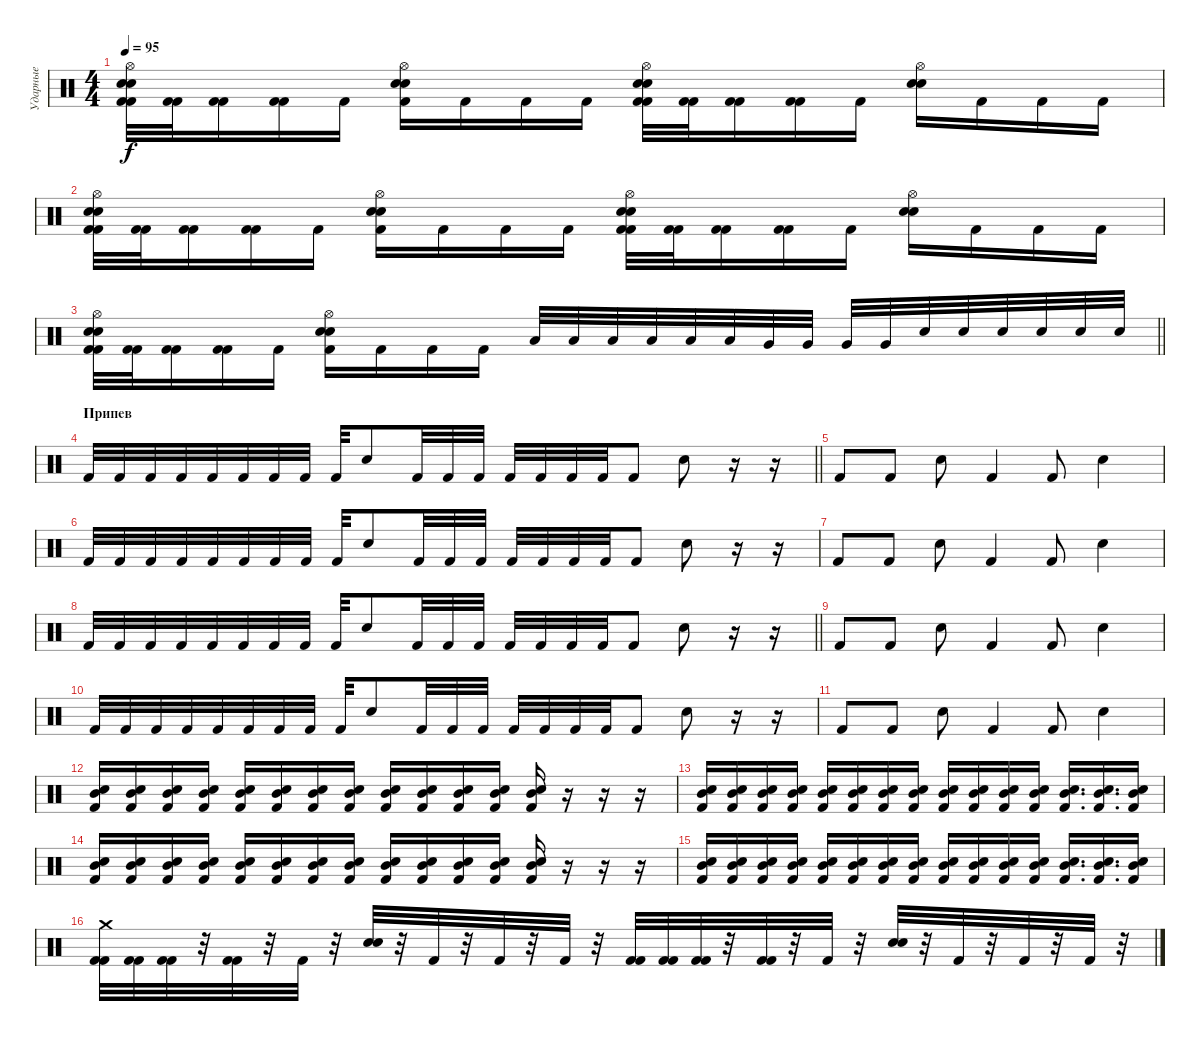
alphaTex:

\track ("Ударные" "Ударные") {instrument percussion}
\staff {score}
\articulation defaults
\ts (4 4)
\tempo 95
\clef neutral
\ks c
("Hi-Hat (open)" "Electric Snare (hit)" "Electric Snare (hit)" "Kick (hit) 2" "Kick (hit) 2").32{dy f} ("Kick (hit) 2" "Kick (hit) 2").32 ("Kick (hit) 2" "Kick (hit) 2").16 ("Kick (hit) 2" "Kick (hit) 2").16 "Kick (hit) 2".16 ("Hi-Hat (open)" "Electric Snare (hit)" "Electric Snare (hit)" "Kick (hit) 2").16 "Kick (hit) 2".16 "Kick (hit) 2".16 "Kick (hit) 2".16 ("Hi-Hat (open)" "Electric Snare (hit)" "Electric Snare (hit)" "Kick (hit) 2" "Kick (hit) 2").32 ("Kick (hit) 2" "Kick (hit) 2").32 ("Kick (hit) 2" "Kick (hit) 2").16 ("Kick (hit) 2" "Kick (hit) 2").16 "Kick (hit) 2".16 ("Hi-Hat (open)" "Electric Snare (hit)" "Electric Snare (hit)").16 "Kick (hit) 2".16 "Kick (hit) 2".16 "Kick (hit) 2".16 |
("Hi-Hat (open)" "Electric Snare (hit)" "Electric Snare (hit)" "Kick (hit) 2" "Kick (hit) 2").32 ("Kick (hit) 2" "Kick (hit) 2").32 ("Kick (hit) 2" "Kick (hit) 2").16 ("Kick (hit) 2" "Kick (hit) 2").16 "Kick (hit) 2".16 ("Hi-Hat (open)" "Electric Snare (hit)" "Electric Snare (hit)" "Kick (hit) 2").16 "Kick (hit) 2".16 "Kick (hit) 2".16 "Kick (hit) 2".16 ("Hi-Hat (open)" "Electric Snare (hit)" "Electric Snare (hit)" "Kick (hit) 2" "Kick (hit) 2").32 ("Kick (hit) 2" "Kick (hit) 2").32 ("Kick (hit) 2" "Kick (hit) 2").16 ("Kick (hit) 2" "Kick (hit) 2").16 "Kick (hit) 2".16 ("Hi-Hat (open)" "Electric Snare (hit)" "Electric Snare (hit)").16 "Kick (hit) 2".16 "Kick (hit) 2".16 "Kick (hit) 2".16 |
\barLineRight lightlight
("Hi-Hat (open)" "Electric Snare (hit)" "Electric Snare (hit)" "Kick (hit) 2" "Kick (hit) 2").32 ("Kick (hit) 2" "Kick (hit) 2").32 ("Kick (hit) 2" "Kick (hit) 2").16 ("Kick (hit) 2" "Kick (hit) 2").16 "Kick (hit) 2".16 ("Hi-Hat (open)" "Electric Snare (hit)" "Electric Snare (hit)" "Kick (hit) 2").16 "Kick (hit) 2".16 "Kick (hit) 2".16 "Kick (hit) 2".16 "Low Tom (hit)".32 "Low Tom (hit)".32 "Low Tom (hit)".32 "Low Tom (hit)".32 "Low Tom (hit)".32 "Low Tom (hit)".32 "Very Low Tom (hit)".32 "Very Low Tom (hit)".32 "Very Low Tom (hit)".32 "Very Low Tom (hit)".32 "Electric Snare (hit)".32 "Electric Snare (hit)".32 "Electric Snare (hit)".32 "Electric Snare (hit)".32 "Electric Snare (hit)".32 "Electric Snare (hit)".32 |
\section ("" "Припев")
\barLineRight lightlight "Kick (hit) 2".32 "Kick (hit) 2".32 "Kick (hit) 2".32 "Kick (hit) 2".32 "Kick (hit) 2".32 "Kick (hit) 2".32 "Kick (hit) 2".32 "Kick (hit) 2".32 "Kick (hit) 2".32 "Electric Snare (hit)".8 "Kick (hit) 2".32 "Kick (hit) 2".32 "Kick (hit) 2".32 "Kick (hit) 2".32 "Kick (hit) 2".32 "Kick (hit) 2".32 "Kick (hit) 2".32 "Kick (hit) 2".8 "Electric Snare (hit)".8
r.16 r.16 |
\section ("" "")
"Kick (hit) 2".8 "Kick (hit) 2".8 "Electric Snare (hit)".8 "Kick (hit) 2".4 "Kick (hit) 2".8 "Electric Snare (hit)".4 |
"Kick (hit) 2".32 "Kick (hit) 2".32 "Kick (hit) 2".32 "Kick (hit) 2".32 "Kick (hit) 2".32 "Kick (hit) 2".32 "Kick (hit) 2".32 "Kick (hit) 2".32 "Kick (hit) 2".32 "Electric Snare (hit)".8 "Kick (hit) 2".32 "Kick (hit) 2".32 "Kick (hit) 2".32 "Kick (hit) 2".32 "Kick (hit) 2".32 "Kick (hit) 2".32 "Kick (hit) 2".32 "Kick (hit) 2".8 "Electric Snare (hit)".8 r.16 r.16 |
"Kick (hit) 2".8 "Kick (hit) 2".8 "Electric Snare (hit)".8 "Kick (hit) 2".4 "Kick (hit) 2".8 "Electric Snare (hit)".4 |
\barLineRight lightlight "Kick (hit) 2".32 "Kick (hit) 2".32 "Kick (hit) 2".32 "Kick (hit) 2".32 "Kick (hit) 2".32 "Kick (hit) 2".32 "Kick (hit) 2".32 "Kick (hit) 2".32 "Kick (hit) 2".32 "Electric Snare (hit)".8 "Kick (hit) 2".32 "Kick (hit) 2".32 "Kick (hit) 2".32 "Kick (hit) 2".32 "Kick (hit) 2".32 "Kick (hit) 2".32 "Kick (hit) 2".32 "Kick (hit) 2".8 "Electric Snare (hit)".8
r.16 r.16 |
"Kick (hit) 2".8 "Kick (hit) 2".8 "Electric Snare (hit)".8 "Kick (hit) 2".4 "Kick (hit) 2".8 "Electric Snare (hit)".4 |
"Kick (hit) 2".32 "Kick (hit) 2".32 "Kick (hit) 2".32 "Kick (hit) 2".32 "Kick (hit) 2".32 "Kick (hit) 2".32 "Kick (hit) 2".32 "Kick (hit) 2".32 "Kick (hit) 2".32 "Electric Snare (hit)".8 "Kick (hit) 2".32 "Kick (hit) 2".32 "Kick (hit) 2".32 "Kick (hit) 2".32 "Kick (hit) 2".32 "Kick (hit) 2".32 "Kick (hit) 2".32 "Kick (hit) 2".8 "Electric Snare (hit)".8 r.16 r.16 |
"Kick (hit) 2".8 "Kick (hit) 2".8 "Electric Snare (hit)".8 "Kick (hit) 2".4 "Kick (hit) 2".8 "Electric Snare (hit)".4 |
("Mid Tom (hit)" "Snare (hit) 2" "Kick (hit) 2").16 ("Mid Tom (hit)" "Snare (hit) 2" "Kick (hit) 2").16 ("Mid Tom (hit)" "Snare (hit) 2" "Kick (hit) 2").16 ("Mid Tom (hit)" "Snare (hit) 2" "Kick (hit) 2").16 ("Mid Tom (hit)" "Snare (hit) 2" "Kick (hit) 2").16 ("Mid Tom (hit)" "Snare (hit) 2" "Kick (hit) 2").16 ("Mid Tom (hit)" "Snare (hit) 2" "Kick (hit) 2").16 ("Mid Tom (hit)" "Snare (hit) 2" "Kick (hit) 2").16 ("Mid Tom (hit)" "Snare (hit) 2" "Kick (hit) 2").16 ("Mid Tom (hit)" "Snare (hit) 2" "Kick (hit) 2").16 ("Mid Tom (hit)" "Snare (hit) 2" "Kick (hit) 2").16 ("Mid Tom (hit)" "Snare (hit) 2" "Kick (hit) 2").16 ("Mid Tom (hit)" "Snare (hit) 2" "Kick (hit) 2").16 r.16 r.16 r.16 |
("Mid Tom (hit)" "Snare (hit) 2" "Kick (hit) 2").16 ("Mid Tom (hit)" "Snare (hit) 2" "Kick (hit) 2").16 ("Mid Tom (hit)" "Snare (hit) 2" "Kick (hit) 2").16 ("Mid Tom (hit)" "Snare (hit) 2" "Kick (hit) 2").16 ("Mid Tom (hit)" "Snare (hit) 2" "Kick (hit) 2").16 ("Mid Tom (hit)" "Snare (hit) 2" "Kick (hit) 2").16 ("Mid Tom (hit)" "Snare (hit) 2" "Kick (hit) 2").16 ("Mid Tom (hit)" "Snare (hit) 2" "Kick (hit) 2").16 ("Mid Tom (hit)" "Snare (hit) 2" "Kick (hit) 2").16 ("Mid Tom (hit)" "Snare (hit) 2" "Kick (hit) 2").16 ("Mid Tom (hit)" "Snare (hit) 2" "Kick (hit) 2").16 ("Mid Tom (hit)" "Snare (hit) 2" "Kick (hit) 2").16 ("Mid Tom (hit)" "Snare (hit) 2" "Kick (hit) 2").16{d} ("Mid Tom (hit)" "Snare (hit) 2" "Kick (hit) 2").16{d} ("Mid Tom (hit)" "Snare (hit) 2" "Kick (hit) 2").16 |
("Mid Tom (hit)" "Snare (hit) 2" "Kick (hit) 2").16 ("Mid Tom (hit)" "Snare (hit) 2" "Kick (hit) 2").16 ("Mid Tom (hit)" "Snare (hit) 2" "Kick (hit) 2").16 ("Mid Tom (hit)" "Snare (hit) 2" "Kick (hit) 2").16 ("Mid Tom (hit)" "Snare (hit) 2" "Kick (hit) 2").16 ("Mid Tom (hit)" "Snare (hit) 2" "Kick (hit) 2").16 ("Mid Tom (hit)" "Snare (hit) 2" "Kick (hit) 2").16 ("Mid Tom (hit)" "Snare (hit) 2" "Kick (hit) 2").16 ("Mid Tom (hit)" "Snare (hit) 2" "Kick (hit) 2").16 ("Mid Tom (hit)" "Snare (hit) 2" "Kick (hit) 2").16 ("Mid Tom (hit)" "Snare (hit) 2" "Kick (hit) 2").16 ("Mid Tom (hit)" "Snare (hit) 2" "Kick (hit) 2").16 ("Mid Tom (hit)" "Snare (hit) 2" "Kick (hit) 2").16 r.16 r.16 r.16 |
("Mid Tom (hit)" "Snare (hit) 2" "Kick (hit) 2").16 ("Mid Tom (hit)" "Snare (hit) 2" "Kick (hit) 2").16 ("Mid Tom (hit)" "Snare (hit) 2" "Kick (hit) 2").16 ("Mid Tom (hit)" "Snare (hit) 2" "Kick (hit) 2").16 ("Mid Tom (hit)" "Snare (hit) 2" "Kick (hit) 2").16 ("Mid Tom (hit)" "Snare (hit) 2" "Kick (hit) 2").16 ("Mid Tom (hit)" "Snare (hit) 2" "Kick (hit) 2").16 ("Mid Tom (hit)" "Snare (hit) 2" "Kick (hit) 2").16 ("Mid Tom (hit)" "Snare (hit) 2" "Kick (hit) 2").16 ("Mid Tom (hit)" "Snare (hit) 2" "Kick (hit) 2").16 ("Mid Tom (hit)" "Snare (hit) 2" "Kick (hit) 2").16 ("Mid Tom (hit)" "Snare (hit) 2" "Kick (hit) 2").16 ("Mid Tom (hit)" "Snare (hit) 2" "Kick (hit) 2").16{d} ("Mid Tom (hit)" "Snare (hit) 2" "Kick (hit) 2").16{d} ("Mid Tom (hit)" "Snare (hit) 2" "Kick (hit) 2").16 |
("Kick (hit) 2" "Kick (hit) 2" "Crash medium (hit)").32 ("Kick (hit) 2" "Kick (hit) 2").32 ("Kick (hit) 2" "Kick (hit) 2").32 r.32 ("Kick (hit) 2" "Kick (hit) 2").32 r.32 "Kick (hit) 2".32 r.32 ("Electric Snare (hit)" "Electric Snare (hit)").32 r.32 "Kick (hit) 2".32 r.32 "Kick (hit) 2".32 r.32 "Kick (hit) 2".32 r.32 ("Kick (hit) 2" "Kick (hit) 2").32 ("Kick (hit) 2" "Kick (hit) 2").32 ("Kick (hit) 2" "Kick (hit) 2").32 r.32 ("Kick (hit) 2" "Kick (hit) 2").32 r.32 "Kick (hit) 2".32 r.32 ("Electric Snare (hit)" "Electric Snare (hit)").32 r.32 "Kick (hit) 2".32 r.32 "Kick (hit) 2".32 r.32 "Kick (hit) 2".32 r.32
